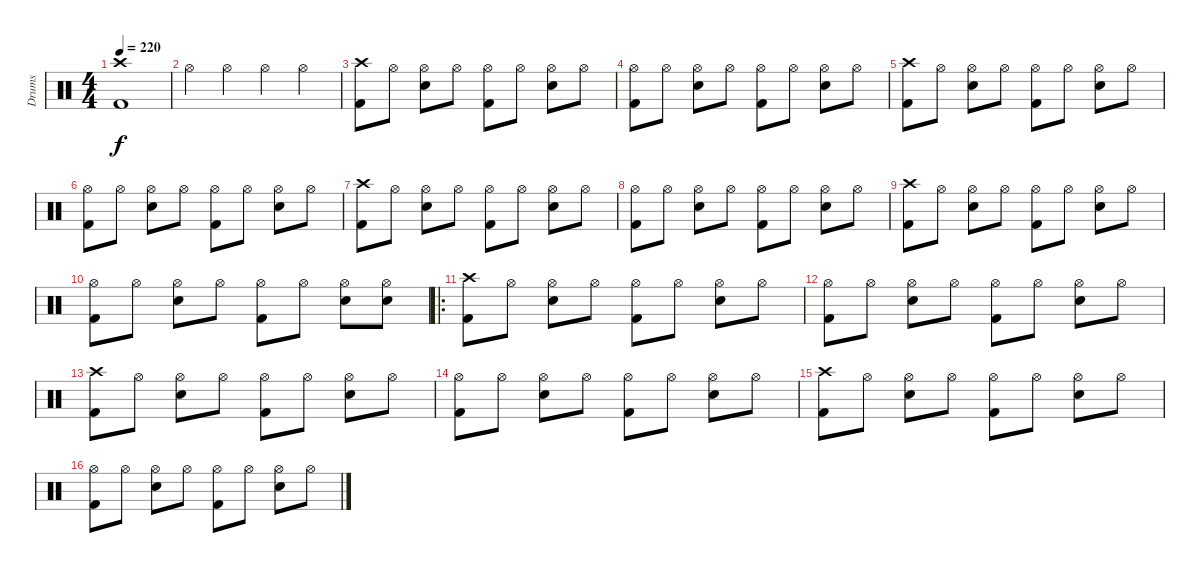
\track ("Drums" "Drums") {instrument percussion}
\staff {score}
\articulation defaults
\ts (4 4)
\tempo 220
\clef neutral
\ks c
("Crash high (hit)" "Kick (hit) 2").1{dy f} |
"Hi-Hat (open)".4 "Hi-Hat (open)".4 "Hi-Hat (open)".4 "Hi-Hat (open)".4 |
("Crash high (hit)" "Kick (hit) 2").8 "Hi-Hat (open)".8 ("Hi-Hat (open)" "Snare (hit) 2").8 "Hi-Hat (open)".8 ("Hi-Hat (open)" "Kick (hit) 2").8 "Hi-Hat (open)".8 ("Hi-Hat (open)" "Snare (hit) 2").8 "Hi-Hat (open)".8 |
("Hi-Hat (open)" "Kick (hit) 2").8 "Hi-Hat (open)".8 ("Hi-Hat (open)" "Snare (hit) 2").8 "Hi-Hat (open)".8 ("Hi-Hat (open)" "Kick (hit) 2").8 "Hi-Hat (open)".8 ("Hi-Hat (open)" "Snare (hit) 2").8 "Hi-Hat (open)".8 |
("Crash high (hit)" "Kick (hit) 2").8 "Hi-Hat (open)".8 ("Hi-Hat (open)" "Snare (hit) 2").8 "Hi-Hat (open)".8 ("Hi-Hat (open)" "Kick (hit) 2").8 "Hi-Hat (open)".8 ("Hi-Hat (open)" "Snare (hit) 2").8 "Hi-Hat (open)".8 |
("Hi-Hat (open)" "Kick (hit) 2").8 "Hi-Hat (open)".8 ("Hi-Hat (open)" "Snare (hit) 2").8 "Hi-Hat (open)".8 ("Hi-Hat (open)" "Kick (hit) 2").8 "Hi-Hat (open)".8 ("Hi-Hat (open)" "Snare (hit) 2").8 "Hi-Hat (open)".8 |
("Crash high (hit)" "Kick (hit) 2").8 "Hi-Hat (open)".8 ("Hi-Hat (open)" "Snare (hit) 2").8 "Hi-Hat (open)".8 ("Hi-Hat (open)" "Kick (hit) 2").8 "Hi-Hat (open)".8 ("Hi-Hat (open)" "Snare (hit) 2").8 "Hi-Hat (open)".8 |
("Hi-Hat (open)" "Kick (hit) 2").8 "Hi-Hat (open)".8 ("Hi-Hat (open)" "Snare (hit) 2").8 "Hi-Hat (open)".8 ("Hi-Hat (open)" "Kick (hit) 2").8 "Hi-Hat (open)".8 ("Hi-Hat (open)" "Snare (hit) 2").8 "Hi-Hat (open)".8 |
("Crash high (hit)" "Kick (hit) 2").8 "Hi-Hat (open)".8 ("Hi-Hat (open)" "Snare (hit) 2").8 "Hi-Hat (open)".8 ("Hi-Hat (open)" "Kick (hit) 2").8 "Hi-Hat (open)".8 ("Hi-Hat (open)" "Snare (hit) 2").8 "Hi-Hat (open)".8 |
("Hi-Hat (open)" "Kick (hit) 2").8 "Hi-Hat (open)".8 ("Hi-Hat (open)" "Snare (hit) 2").8 "Hi-Hat (open)".8 ("Hi-Hat (open)" "Kick (hit) 2").8 "Hi-Hat (open)".8 ("Hi-Hat (open)" "Snare (hit) 2").8 ("Hi-Hat (open)" "Snare (hit) 2").8 |
\ro
("Crash high (hit)" "Kick (hit) 2").8 "Hi-Hat (open)".8 ("Hi-Hat (open)" "Snare (hit) 2").8 "Hi-Hat (open)".8 ("Hi-Hat (open)" "Kick (hit) 2").8 "Hi-Hat (open)".8 ("Hi-Hat (open)" "Snare (hit) 2").8 "Hi-Hat (open)".8 |
("Hi-Hat (open)" "Kick (hit) 2").8 "Hi-Hat (open)".8 ("Hi-Hat (open)" "Snare (hit) 2").8 "Hi-Hat (open)".8 ("Hi-Hat (open)" "Kick (hit) 2").8 "Hi-Hat (open)".8 ("Hi-Hat (open)" "Snare (hit) 2").8 "Hi-Hat (open)".8 |
("Crash high (hit)" "Kick (hit) 2").8 "Hi-Hat (open)".8 ("Hi-Hat (open)" "Snare (hit) 2").8 "Hi-Hat (open)".8 ("Hi-Hat (open)" "Kick (hit) 2").8 "Hi-Hat (open)".8 ("Hi-Hat (open)" "Snare (hit) 2").8 "Hi-Hat (open)".8 |
("Hi-Hat (open)" "Kick (hit) 2").8 "Hi-Hat (open)".8 ("Hi-Hat (open)" "Snare (hit) 2").8 "Hi-Hat (open)".8 ("Hi-Hat (open)" "Kick (hit) 2").8 "Hi-Hat (open)".8 ("Hi-Hat (open)" "Snare (hit) 2").8 "Hi-Hat (open)".8 |
("Crash high (hit)" "Kick (hit) 2").8 "Hi-Hat (open)".8 ("Hi-Hat (open)" "Snare (hit) 2").8 "Hi-Hat (open)".8 ("Hi-Hat (open)" "Kick (hit) 2").8 "Hi-Hat (open)".8 ("Hi-Hat (open)" "Snare (hit) 2").8 "Hi-Hat (open)".8 |
("Hi-Hat (open)" "Kick (hit) 2").8 "Hi-Hat (open)".8 ("Hi-Hat (open)" "Snare (hit) 2").8 "Hi-Hat (open)".8 ("Hi-Hat (open)" "Kick (hit) 2").8 "Hi-Hat (open)".8 ("Hi-Hat (open)" "Snare (hit) 2").8 "Hi-Hat (open)".8
